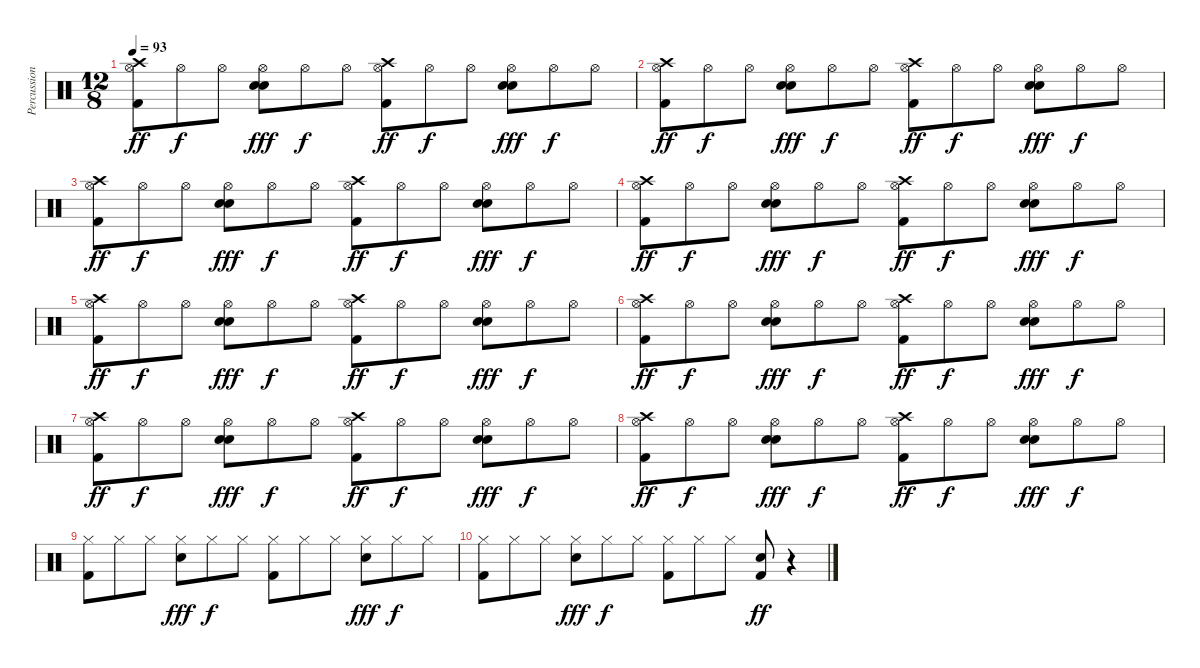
\track ("Percussion" "Percussion") {instrument percussion}
\staff {score}
\articulation defaults
\ts (12 8)
\tempo 93
\clef neutral
\ks c
("Crash high (hit)" "Hi-Hat (open)" "Kick (hit) 2").8{dy ff} "Hi-Hat (open)".8{dy f} "Hi-Hat (open)".8 ("Hand Clap (hit)" "Hi-Hat (open)" "Snare (hit) 2").8{dy fff} "Hi-Hat (open)".8{dy f} "Hi-Hat (open)".8 ("Crash high (hit)" "Hi-Hat (open)" "Kick (hit) 2").8{dy ff} "Hi-Hat (open)".8{dy f} "Hi-Hat (open)".8 ("Hand Clap (hit)" "Hi-Hat (open)" "Snare (hit) 2").8{dy fff} "Hi-Hat (open)".8{dy f} "Hi-Hat (open)".8 |
("Crash high (hit)" "Hi-Hat (open)" "Kick (hit) 2").8{dy ff} "Hi-Hat (open)".8{dy f} "Hi-Hat (open)".8 ("Hand Clap (hit)" "Hi-Hat (open)" "Snare (hit) 2").8{dy fff} "Hi-Hat (open)".8{dy f} "Hi-Hat (open)".8 ("Crash high (hit)" "Hi-Hat (open)" "Kick (hit) 2").8{dy ff} "Hi-Hat (open)".8{dy f} "Hi-Hat (open)".8 ("Hand Clap (hit)" "Hi-Hat (open)" "Snare (hit) 2").8{dy fff} "Hi-Hat (open)".8{dy f} "Hi-Hat (open)".8 |
("Crash high (hit)" "Hi-Hat (open)" "Kick (hit) 2").8{dy ff} "Hi-Hat (open)".8{dy f} "Hi-Hat (open)".8 ("Hand Clap (hit)" "Hi-Hat (open)" "Snare (hit) 2").8{dy fff} "Hi-Hat (open)".8{dy f} "Hi-Hat (open)".8 ("Crash high (hit)" "Hi-Hat (open)" "Kick (hit) 2").8{dy ff} "Hi-Hat (open)".8{dy f} "Hi-Hat (open)".8 ("Hand Clap (hit)" "Hi-Hat (open)" "Snare (hit) 2").8{dy fff} "Hi-Hat (open)".8{dy f} "Hi-Hat (open)".8 |
("Crash high (hit)" "Hi-Hat (open)" "Kick (hit) 2").8{dy ff} "Hi-Hat (open)".8{dy f} "Hi-Hat (open)".8 ("Hand Clap (hit)" "Hi-Hat (open)" "Snare (hit) 2").8{dy fff} "Hi-Hat (open)".8{dy f} "Hi-Hat (open)".8 ("Crash high (hit)" "Hi-Hat (open)" "Kick (hit) 2").8{dy ff} "Hi-Hat (open)".8{dy f} "Hi-Hat (open)".8 ("Hand Clap (hit)" "Hi-Hat (open)" "Snare (hit) 2").8{dy fff} "Hi-Hat (open)".8{dy f} "Hi-Hat (open)".8 |
("Crash high (hit)" "Hi-Hat (open)" "Kick (hit) 2").8{dy ff} "Hi-Hat (open)".8{dy f} "Hi-Hat (open)".8 ("Hand Clap (hit)" "Hi-Hat (open)" "Snare (hit) 2").8{dy fff} "Hi-Hat (open)".8{dy f} "Hi-Hat (open)".8 ("Crash high (hit)" "Hi-Hat (open)" "Kick (hit) 2").8{dy ff} "Hi-Hat (open)".8{dy f} "Hi-Hat (open)".8 ("Hand Clap (hit)" "Hi-Hat (open)" "Snare (hit) 2").8{dy fff} "Hi-Hat (open)".8{dy f} "Hi-Hat (open)".8 |
("Crash high (hit)" "Hi-Hat (open)" "Kick (hit) 2").8{dy ff} "Hi-Hat (open)".8{dy f} "Hi-Hat (open)".8 ("Hand Clap (hit)" "Hi-Hat (open)" "Snare (hit) 2").8{dy fff} "Hi-Hat (open)".8{dy f} "Hi-Hat (open)".8 ("Crash high (hit)" "Hi-Hat (open)" "Kick (hit) 2").8{dy ff} "Hi-Hat (open)".8{dy f} "Hi-Hat (open)".8 ("Hand Clap (hit)" "Hi-Hat (open)" "Snare (hit) 2").8{dy fff} "Hi-Hat (open)".8{dy f} "Hi-Hat (open)".8 |
("Crash high (hit)" "Hi-Hat (open)" "Kick (hit) 2").8{dy ff} "Hi-Hat (open)".8{dy f} "Hi-Hat (open)".8 ("Hand Clap (hit)" "Hi-Hat (open)" "Snare (hit) 2").8{dy fff} "Hi-Hat (open)".8{dy f} "Hi-Hat (open)".8 ("Crash high (hit)" "Hi-Hat (open)" "Kick (hit) 2").8{dy ff} "Hi-Hat (open)".8{dy f} "Hi-Hat (open)".8 ("Hand Clap (hit)" "Hi-Hat (open)" "Snare (hit) 2").8{dy fff} "Hi-Hat (open)".8{dy f} "Hi-Hat (open)".8 |
("Crash high (hit)" "Hi-Hat (open)" "Kick (hit) 2").8{dy ff} "Hi-Hat (open)".8{dy f} "Hi-Hat (open)".8 ("Hand Clap (hit)" "Hi-Hat (open)" "Snare (hit) 2").8{dy fff} "Hi-Hat (open)".8{dy f} "Hi-Hat (open)".8 ("Crash high (hit)" "Hi-Hat (open)" "Kick (hit) 2").8{dy ff} "Hi-Hat (open)".8{dy f} "Hi-Hat (open)".8 ("Hand Clap (hit)" "Hi-Hat (open)" "Snare (hit) 2").8{dy fff} "Hi-Hat (open)".8{dy f} "Hi-Hat (open)".8 |
("Hi-Hat (closed)" "Kick (hit) 2").8 "Hi-Hat (closed)".8 "Hi-Hat (closed)".8 ("Hi-Hat (closed)" "Snare (hit) 2").8{dy fff} "Hi-Hat (closed)".8{dy f} "Hi-Hat (closed)".8 ("Hi-Hat (closed)" "Kick (hit) 2").8 "Hi-Hat (closed)".8 "Hi-Hat (closed)".8 ("Hi-Hat (closed)" "Snare (hit) 2").8{dy fff} "Hi-Hat (closed)".8{dy f} "Hi-Hat (closed)".8 |
("Hi-Hat (closed)" "Kick (hit) 2").8 "Hi-Hat (closed)".8 "Hi-Hat (closed)".8 ("Hi-Hat (closed)" "Snare (hit) 2").8{dy fff} "Hi-Hat (closed)".8{dy f} "Hi-Hat (closed)".8 ("Hi-Hat (closed)" "Kick (hit) 2").8 "Hi-Hat (closed)".8 "Hi-Hat (closed)".8 ("Hand Clap (hit)" "Kick (hit) 2").8{dy ff} r.4
